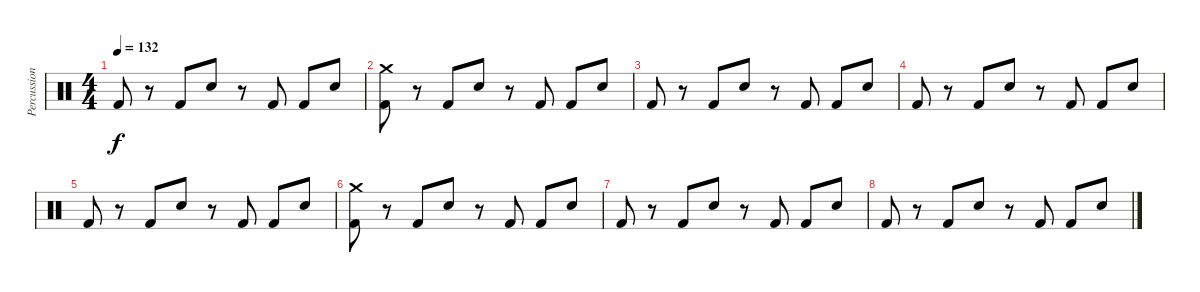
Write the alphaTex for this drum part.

\track ("Percussion" "Percussion") {instrument percussion}
\staff {score}
\articulation defaults
\ts (4 4)
\tempo 132
\clef neutral
\ks c "Kick (hit) 2".8{dy f}
r.8 "Kick (hit) 2".8 "Snare (hit) 2".8 r.8 "Kick (hit) 2".8 "Kick (hit) 2".8 "Snare (hit) 2".8 |
("Crash medium (hit)" "Kick (hit) 2").8 r.8 "Kick (hit) 2".8 "Snare (hit) 2".8 r.8 "Kick (hit) 2".8 "Kick (hit) 2".8 "Snare (hit) 2".8 |
"Kick (hit) 2".8 r.8 "Kick (hit) 2".8 "Snare (hit) 2".8 r.8 "Kick (hit) 2".8 "Kick (hit) 2".8 "Snare (hit) 2".8 |
"Kick (hit) 2".8 r.8 "Kick (hit) 2".8 "Snare (hit) 2".8 r.8 "Kick (hit) 2".8 "Kick (hit) 2".8 "Snare (hit) 2".8 |
"Kick (hit) 2".8 r.8 "Kick (hit) 2".8 "Snare (hit) 2".8 r.8 "Kick (hit) 2".8 "Kick (hit) 2".8 "Snare (hit) 2".8 |
("Crash medium (hit)" "Kick (hit) 2").8 r.8 "Kick (hit) 2".8 "Snare (hit) 2".8 r.8 "Kick (hit) 2".8 "Kick (hit) 2".8 "Snare (hit) 2".8 |
"Kick (hit) 2".8 r.8 "Kick (hit) 2".8 "Snare (hit) 2".8 r.8 "Kick (hit) 2".8 "Kick (hit) 2".8 "Snare (hit) 2".8 |
"Kick (hit) 2".8 r.8 "Kick (hit) 2".8 "Snare (hit) 2".8 r.8 "Kick (hit) 2".8 "Kick (hit) 2".8 "Snare (hit) 2".8
